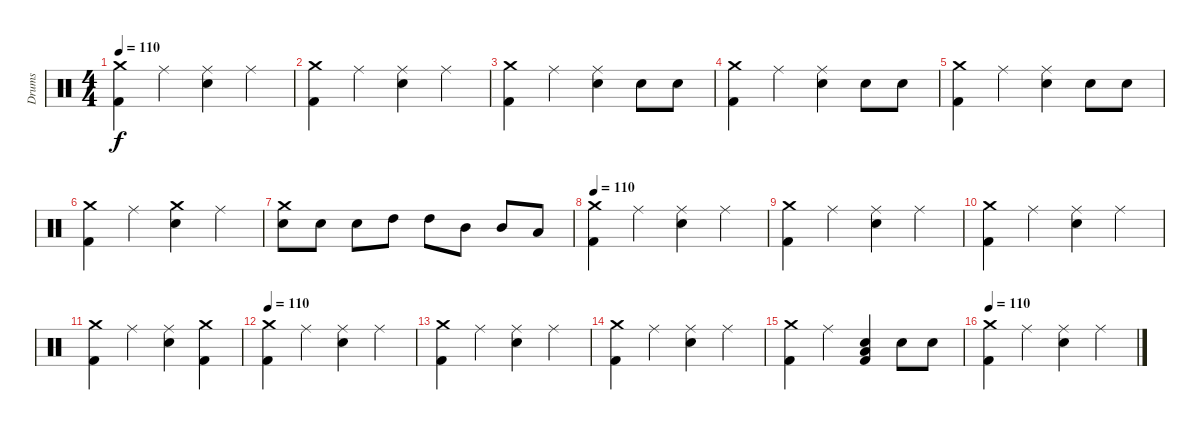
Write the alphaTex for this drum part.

\track ("Drums" "Drums") {instrument percussion}
\staff {score}
\articulation defaults
\ts (4 4)
\tempo 110
\clef neutral
\ks c
("Crash medium (hit)" "Kick (hit) 2").4{dy f} "Ride (middle)".4 ("Ride (middle)" "Electric Snare (hit)").4 "Ride (middle)".4 |
("Crash medium (hit)" "Kick (hit) 2").4 "Ride (middle)".4 ("Ride (middle)" "Electric Snare (hit)").4 "Ride (middle)".4 |
("Crash medium (hit)" "Kick (hit) 2").4 "Ride (middle)".4 ("Ride (middle)" "Electric Snare (hit)").4 "Electric Snare (hit)".8 "Electric Snare (hit)".8 |
("Crash medium (hit)" "Kick (hit) 2").4 "Ride (middle)".4 ("Ride (middle)" "Electric Snare (hit)").4 "Electric Snare (hit)".8 "Electric Snare (hit)".8 |
("Crash medium (hit)" "Kick (hit) 2").4 "Ride (middle)".4 ("Ride (middle)" "Electric Snare (hit)").4 "Electric Snare (hit)".8 "Electric Snare (hit)".8 |
("Crash medium (hit)" "Kick (hit) 2").4 "Ride (middle)".4 ("Crash medium (hit)" "Electric Snare (hit)").4 "Ride (middle)".4 |
("Crash medium (hit)" "Electric Snare (hit)").8 "Electric Snare (hit)".8 "Electric Snare (hit)".8 "High Tom (hit)".8 "High Tom (hit)".8 "Mid Tom (hit)".8 "Mid Tom (hit)".8 "Low Tom (hit)".8 |
\tempo 110
("Crash medium (hit)" "Kick (hit) 2").4 "Ride (middle)".4 ("Ride (middle)" "Electric Snare (hit)").4 "Ride (middle)".4 |
("Crash medium (hit)" "Kick (hit) 2").4 "Ride (middle)".4 ("Ride (middle)" "Electric Snare (hit)").4 "Ride (middle)".4 |
("Crash medium (hit)" "Kick (hit) 2").4 "Ride (middle)".4 ("Ride (middle)" "Electric Snare (hit)").4 "Ride (middle)".4 |
("Crash medium (hit)" "Kick (hit) 2").4 "Ride (middle)".4 ("Ride (middle)" "Electric Snare (hit)").4 ("Crash medium (hit)" "Kick (hit) 2").4 |
\tempo 110
("Crash medium (hit)" "Kick (hit) 2").4 "Ride (middle)".4 ("Ride (middle)" "Electric Snare (hit)").4 "Ride (middle)".4 |
("Crash medium (hit)" "Kick (hit) 2").4 "Ride (middle)".4 ("Ride (middle)" "Electric Snare (hit)").4 "Ride (middle)".4 |
("Crash medium (hit)" "Kick (hit) 2").4 "Ride (middle)".4 ("Ride (middle)" "Electric Snare (hit)").4 "Ride (middle)".4 |
("Crash medium (hit)" "Kick (hit) 2").4 "Ride (middle)".4 ("Kick (hit) 2" "Electric Snare (hit)" "Low Tom (hit)").4 "Electric Snare (hit)".8 "Electric Snare (hit)".8 |
\tempo 110
("Crash medium (hit)" "Kick (hit) 2").4 "Ride (middle)".4 ("Ride (middle)" "Electric Snare (hit)").4 "Ride (middle)".4
